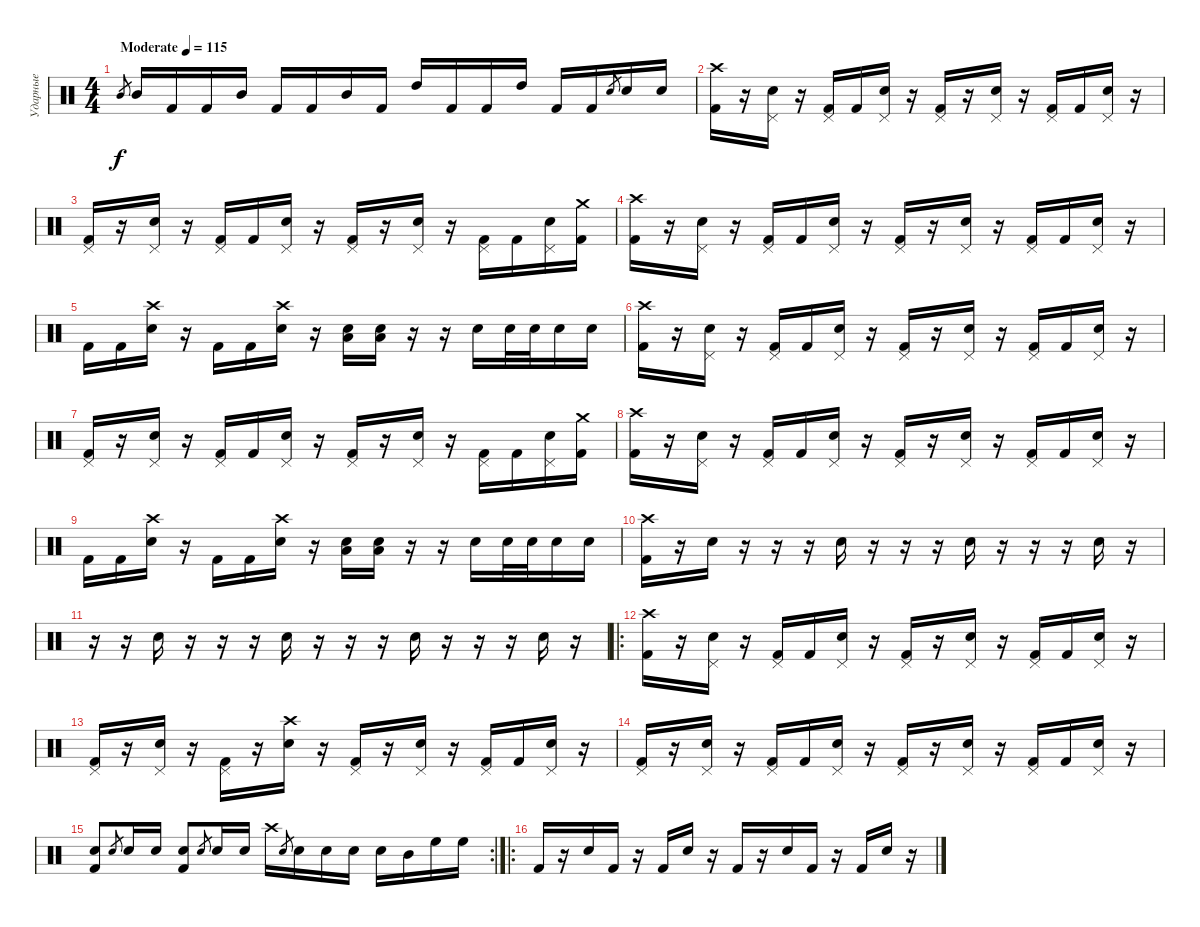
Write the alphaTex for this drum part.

\track ("Ударные" "Ударные") {instrument percussion}
\staff
\articulation defaults
\ts (4 4)
\tempo (115 "Moderate")
\clef neutral
\ks c "Mid Tom (hit)".8{gr dy f} "Mid Tom (hit)".16 "Kick (hit) 2".16 "Kick (hit) 2".16 "Mid Tom (hit)".16 "Kick (hit) 2".16 "Kick (hit) 2".16 "Mid Tom (hit)".16 "Kick (hit) 2".16 "High Tom (hit)".16 "Kick (hit) 2".16 "Kick (hit) 2".16 "High Tom (hit)".16 "Kick (hit) 2".16 "Kick (hit) 2".16 "Electric Snare (hit)".8{gr} "Electric Snare (hit)".16 "Electric Snare (hit)".16
|
("Crash high (hit)" "Kick (hit) 2").16 r.16 ("Pedal Hi-Hat (hit)" "Electric Snare (hit)").16 r.16 ("Pedal Hi-Hat (hit)" "Kick (hit) 2").16 "Kick (hit) 2".16 ("Pedal Hi-Hat (hit)" "Electric Snare (hit)").16 r.16 ("Pedal Hi-Hat (hit)" "Kick (hit) 2").16 r.16 ("Pedal Hi-Hat (hit)" "Electric Snare (hit)").16 r.16 ("Pedal Hi-Hat (hit)" "Kick (hit) 2").16 "Kick (hit) 2".16 ("Pedal Hi-Hat (hit)" "Electric Snare (hit)").16 r.16 |
("Pedal Hi-Hat (hit)" "Kick (hit) 2").16 r.16 ("Pedal Hi-Hat (hit)" "Electric Snare (hit)").16 r.16 ("Pedal Hi-Hat (hit)" "Kick (hit) 2").16 "Kick (hit) 2".16 ("Pedal Hi-Hat (hit)" "Electric Snare (hit)").16 r.16 ("Pedal Hi-Hat (hit)" "Kick (hit) 2").16 r.16 ("Pedal Hi-Hat (hit)" "Electric Snare (hit)").16 r.16 ("Pedal Hi-Hat (hit)" "Kick (hit) 2").16 "Kick (hit) 2".16 ("Pedal Hi-Hat (hit)" "Electric Snare (hit)").16 ("Crash medium (hit)" "Kick (hit) 2").16 |
("Crash high (hit)" "Kick (hit) 2").16 r.16 ("Pedal Hi-Hat (hit)" "Electric Snare (hit)").16 r.16 ("Pedal Hi-Hat (hit)" "Kick (hit) 2").16 "Kick (hit) 2".16 ("Pedal Hi-Hat (hit)" "Electric Snare (hit)").16 r.16 ("Pedal Hi-Hat (hit)" "Kick (hit) 2").16 r.16 ("Pedal Hi-Hat (hit)" "Electric Snare (hit)").16 r.16 ("Pedal Hi-Hat (hit)" "Kick (hit) 2").16 "Kick (hit) 2".16 ("Pedal Hi-Hat (hit)" "Electric Snare (hit)").16 r.16 |
"Kick (hit) 2".16 "Kick (hit) 2".16 ("Crash high (hit)" "Electric Snare (hit)").16 r.16 "Kick (hit) 2".16 "Kick (hit) 2".16 ("Crash high (hit)" "Electric Snare (hit)").16 r.16 ("Electric Snare (hit)" "Low Tom (hit)").16 ("Electric Snare (hit)" "Low Tom (hit)").16 r.16 r.16 "Electric Snare (hit)".16 "Electric Snare (hit)".32 "Electric Snare (hit)".32 "Electric Snare (hit)".16 "Electric Snare (hit)".16 |
("Crash high (hit)" "Kick (hit) 2").16 r.16 ("Pedal Hi-Hat (hit)" "Electric Snare (hit)").16 r.16 ("Pedal Hi-Hat (hit)" "Kick (hit) 2").16 "Kick (hit) 2".16 ("Pedal Hi-Hat (hit)" "Electric Snare (hit)").16 r.16 ("Pedal Hi-Hat (hit)" "Kick (hit) 2").16 r.16 ("Pedal Hi-Hat (hit)" "Electric Snare (hit)").16 r.16 ("Pedal Hi-Hat (hit)" "Kick (hit) 2").16 "Kick (hit) 2".16 ("Pedal Hi-Hat (hit)" "Electric Snare (hit)").16 r.16 |
("Pedal Hi-Hat (hit)" "Kick (hit) 2").16 r.16 ("Pedal Hi-Hat (hit)" "Electric Snare (hit)").16 r.16 ("Pedal Hi-Hat (hit)" "Kick (hit) 2").16 "Kick (hit) 2".16 ("Pedal Hi-Hat (hit)" "Electric Snare (hit)").16 r.16 ("Pedal Hi-Hat (hit)" "Kick (hit) 2").16 r.16 ("Pedal Hi-Hat (hit)" "Electric Snare (hit)").16 r.16 ("Pedal Hi-Hat (hit)" "Kick (hit) 2").16 "Kick (hit) 2".16 ("Pedal Hi-Hat (hit)" "Electric Snare (hit)").16 ("Crash medium (hit)" "Kick (hit) 2").16 |
("Crash high (hit)" "Kick (hit) 2").16 r.16 ("Pedal Hi-Hat (hit)" "Electric Snare (hit)").16 r.16 ("Pedal Hi-Hat (hit)" "Kick (hit) 2").16 "Kick (hit) 2".16 ("Pedal Hi-Hat (hit)" "Electric Snare (hit)").16 r.16 ("Pedal Hi-Hat (hit)" "Kick (hit) 2").16 r.16 ("Pedal Hi-Hat (hit)" "Electric Snare (hit)").16 r.16 ("Pedal Hi-Hat (hit)" "Kick (hit) 2").16 "Kick (hit) 2".16 ("Pedal Hi-Hat (hit)" "Electric Snare (hit)").16 r.16 |
"Kick (hit) 2".16 "Kick (hit) 2".16 ("Crash high (hit)" "Electric Snare (hit)").16 r.16 "Kick (hit) 2".16 "Kick (hit) 2".16 ("Crash high (hit)" "Electric Snare (hit)").16 r.16 ("Electric Snare (hit)" "Low Tom (hit)").16 ("Electric Snare (hit)" "Low Tom (hit)").16 r.16 r.16 "Electric Snare (hit)".16 "Electric Snare (hit)".32 "Electric Snare (hit)".32 "Electric Snare (hit)".16 "Electric Snare (hit)".16 |
("Crash high (hit)" "Kick (hit) 2").16 r.16 "Electric Snare (hit)".16 r.16 r.16 r.16 "Electric Snare (hit)".16 r.16 r.16 r.16 "Electric Snare (hit)".16 r.16 r.16 r.16 "Electric Snare (hit)".16 r.16 |
r.16 r.16 "Electric Snare (hit)".16 r.16 r.16 r.16 "Electric Snare (hit)".16 r.16 r.16 r.16 "Electric Snare (hit)".16 r.16 r.16 r.16 "Electric Snare (hit)".16 r.16 |
\ro
("Crash high (hit)" "Kick (hit) 2").16 r.16 ("Pedal Hi-Hat (hit)" "Electric Snare (hit)").16 r.16 ("Pedal Hi-Hat (hit)" "Kick (hit) 2").16 "Kick (hit) 2".16 ("Pedal Hi-Hat (hit)" "Electric Snare (hit)").16 r.16 ("Pedal Hi-Hat (hit)" "Kick (hit) 2").16 r.16 ("Pedal Hi-Hat (hit)" "Electric Snare (hit)").16 r.16 ("Pedal Hi-Hat (hit)" "Kick (hit) 2").16 "Kick (hit) 2".16 ("Pedal Hi-Hat (hit)" "Electric Snare (hit)").16 r.16 |
("Pedal Hi-Hat (hit)" "Kick (hit) 2").16 r.16 ("Pedal Hi-Hat (hit)" "Electric Snare (hit)").16 r.16 ("Pedal Hi-Hat (hit)" "Kick (hit) 2").16 r.16 ("Crash high (hit)" "Electric Snare (hit)").16 r.16 ("Pedal Hi-Hat (hit)" "Kick (hit) 2").16 r.16 ("Pedal Hi-Hat (hit)" "Electric Snare (hit)").16 r.16 ("Pedal Hi-Hat (hit)" "Kick (hit) 2").16 "Kick (hit) 2".16 ("Pedal Hi-Hat (hit)" "Electric Snare (hit)").16 r.16 |
("Pedal Hi-Hat (hit)" "Kick (hit) 2").16 r.16 ("Pedal Hi-Hat (hit)" "Electric Snare (hit)").16 r.16 ("Pedal Hi-Hat (hit)" "Kick (hit) 2").16 "Kick (hit) 2".16 ("Pedal Hi-Hat (hit)" "Electric Snare (hit)").16 r.16 ("Pedal Hi-Hat (hit)" "Kick (hit) 2").16 r.16 ("Pedal Hi-Hat (hit)" "Electric Snare (hit)").16 r.16 ("Pedal Hi-Hat (hit)" "Kick (hit) 2").16 "Kick (hit) 2".16 ("Pedal Hi-Hat (hit)" "Electric Snare (hit)").16 r.16 |
\rc 2
("Electric Snare (hit)" "Kick (hit) 2").8 "Electric Snare (hit)".8{gr} "Electric Snare (hit)".16 "Electric Snare (hit)".16 ("Electric Snare (hit)" "Kick (hit) 2").8 "Electric Snare (hit)".8{gr} "Electric Snare (hit)".16 "Electric Snare (hit)".16 "Crash high (hit)".16 "Electric Snare (hit)".8{gr} "Electric Snare (hit)".16 "Electric Snare (hit)".16 "Electric Snare (hit)".16 "Electric Snare (hit)".16 "Mid Tom (hit)".16 "High Floor Tom (hit)".16 "High Floor Tom (hit)".16 |
\ro "Kick (hit) 2".16
r.16 "Electric Snare (hit)".16 "Kick (hit) 2".16 r.16 "Kick (hit) 2".16 "Electric Snare (hit)".16 r.16 "Kick (hit) 2".16 r.16 "Electric Snare (hit)".16 "Kick (hit) 2".16 r.16 "Kick (hit) 2".16 "Electric Snare (hit)".16 r.16
